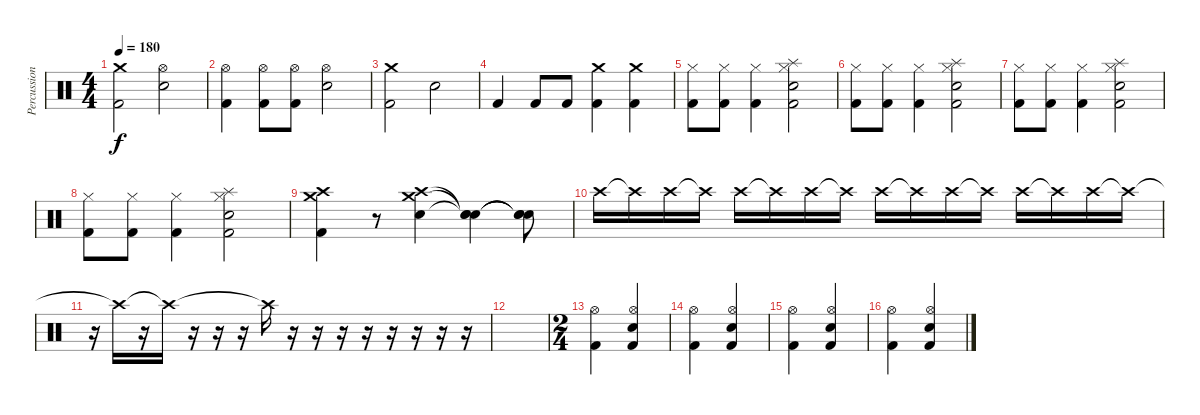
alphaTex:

\track ("Percussion" "Percussion") {instrument percussion}
\staff {score}
\articulation defaults
\ts (4 4)
\tempo 180
\clef neutral
\ks c
("Crash medium (hit)" "Kick (hit) 2").2{dy f} ("Hi-Hat (open)" "Snare (hit) 2").2 |
("Hi-Hat (open)" "Kick (hit) 2").4 ("Hi-Hat (open)" "Kick (hit) 2").8 ("Hi-Hat (open)" "Kick (hit) 2").8 ("Hi-Hat (open)" "Snare (hit) 2").2 |
("Crash medium (hit)" "Kick (hit) 2").2 "Snare (hit) 2".2 |
"Kick (hit) 2".4 "Kick (hit) 2".8 "Kick (hit) 2".8 ("Crash medium (hit)" "Kick (hit) 2").4 ("Crash medium (hit)" "Kick (hit) 2").4 |
("Hi-Hat (closed)" "Kick (hit) 2").8 ("Hi-Hat (closed)" "Kick (hit) 2").8 ("Hi-Hat (closed)" "Kick (hit) 2").4 ("Splash (hit)" "Hi-Hat (closed)" "Snare (hit) 2" "Kick (hit) 2").2 |
("Hi-Hat (closed)" "Kick (hit) 2").8 ("Hi-Hat (closed)" "Kick (hit) 2").8 ("Hi-Hat (closed)" "Kick (hit) 2").4 ("Splash (hit)" "Hi-Hat (closed)" "Snare (hit) 2" "Kick (hit) 2").2 |
("Hi-Hat (closed)" "Kick (hit) 2").8 ("Hi-Hat (closed)" "Kick (hit) 2").8 ("Hi-Hat (closed)" "Kick (hit) 2").4 ("Splash (hit)" "Hi-Hat (closed)" "Snare (hit) 2" "Kick (hit) 2").2 |
("Hi-Hat (closed)" "Kick (hit) 2").8 ("Hi-Hat (closed)" "Kick (hit) 2").8 ("Hi-Hat (closed)" "Kick (hit) 2").4 ("Splash (hit)" "Hi-Hat (closed)" "Snare (hit) 2" "Kick (hit) 2").2 |
("Crash medium (hit)" "Crash high (hit)" "Kick (hit) 2").4 r.8 ("Crash medium (hit)" "Crash high (hit)" "Snare (hit) 2").4 ("Snare (hit)"{t} "Snare (hit)"{t} "Snare (hit)"{t}).4 ("Snare (hit)"{t} "Snare (hit)"{t} "Snare (hit)"{t}).8 |
"Crash high (hit)".16{volume 16} "Crash high (hit)"{t}.16 "Crash high (hit)".16 "Crash high (hit)"{t}.16 "Crash high (hit)".16 "Crash high (hit)"{t}.16 "Crash high (hit)".16 "Crash high (hit)"{t}.16 "Crash high (hit)".16 "Crash high (hit)"{t}.16 "Crash high (hit)".16 "Crash high (hit)"{t}.16 "Crash high (hit)".16 "Crash high (hit)"{t}.16 "Crash high (hit)".16 "Crash high (hit)"{t}.16 |
r.16 "Crash high (hit)"{t}.16 r.16 "Crash high (hit)"{t}.16 r.16 r.16 r.16 "Crash high (hit)"{t}.16 r.16 r.16 r.16 r.16 r.16 r.16 r.16 r.16 |
|
\ts (2 4)
("Hi-Hat (open)" "Kick (hit) 2").4 ("Hi-Hat (open)" "Snare (hit) 2" "Kick (hit) 2").4 |
("Hi-Hat (open)" "Kick (hit) 2").4 ("Hi-Hat (open)" "Snare (hit) 2" "Kick (hit) 2").4 |
("Hi-Hat (open)" "Kick (hit) 2").4 ("Hi-Hat (open)" "Snare (hit) 2" "Kick (hit) 2").4 |
("Hi-Hat (open)" "Kick (hit) 2").4 ("Hi-Hat (open)" "Snare (hit) 2" "Kick (hit) 2").4
